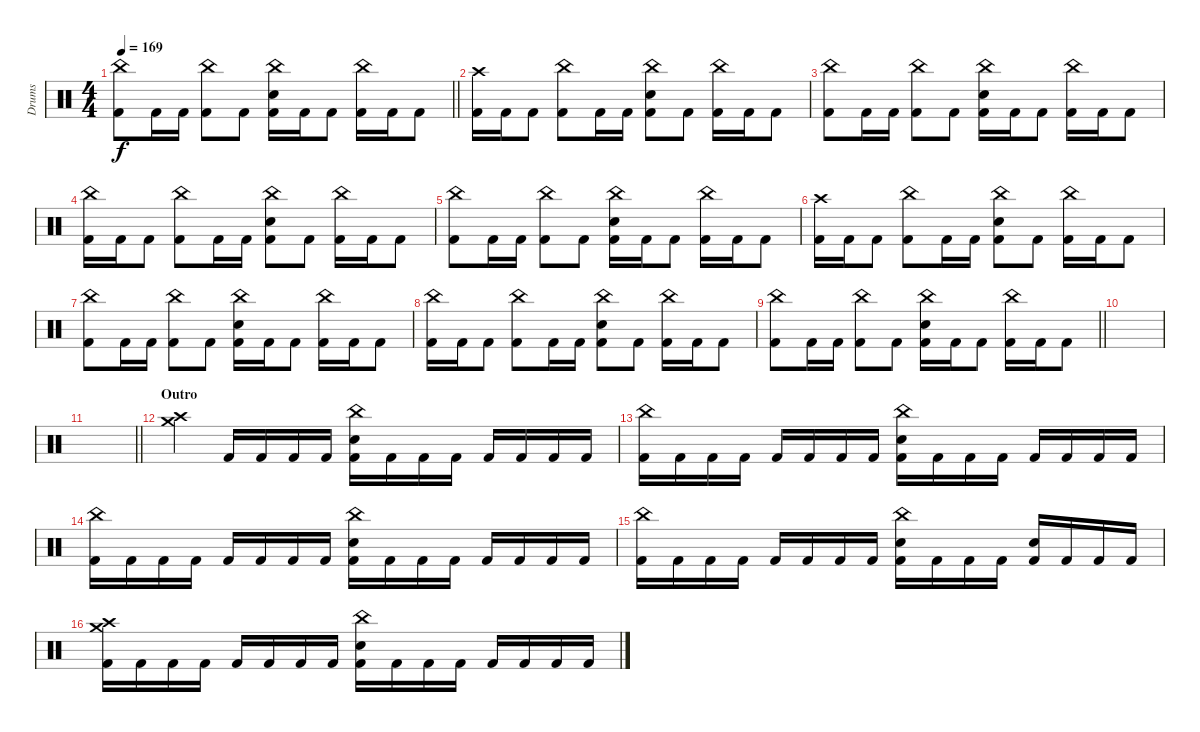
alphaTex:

\track ("Drums" "Drums") {instrument percussion}
\staff {score}
\articulation defaults
\ts (4 4)
\tempo 169
\clef neutral
\barLineRight lightlight
\ks c
("China (hit)" "Kick (hit) 2").8{dy f} "Kick (hit) 2".16 "Kick (hit) 2".16 ("China (hit)" "Kick (hit) 2").8 "Kick (hit) 2".8 ("China (hit)" "Snare (hit) 2" "Kick (hit) 2").16 "Kick (hit) 2".16 "Kick (hit) 2".8 ("China (hit)" "Kick (hit) 2").16 "Kick (hit) 2".16 "Kick (hit) 2".8 |
("Crash high (hit)" "Kick (hit) 2").16 "Kick (hit) 2".16 "Kick (hit) 2".8 ("China (hit)" "Kick (hit) 2").8 "Kick (hit) 2".16 "Kick (hit) 2".16 ("China (hit)" "Snare (hit) 2" "Kick (hit) 2").8 "Kick (hit) 2".8 ("China (hit)" "Kick (hit) 2").16 "Kick (hit) 2".16 "Kick (hit) 2".8 |
("China (hit)" "Kick (hit) 2").8 "Kick (hit) 2".16 "Kick (hit) 2".16 ("China (hit)" "Kick (hit) 2").8 "Kick (hit) 2".8 ("China (hit)" "Snare (hit) 2" "Kick (hit) 2").16 "Kick (hit) 2".16 "Kick (hit) 2".8 ("China (hit)" "Kick (hit) 2").16 "Kick (hit) 2".16 "Kick (hit) 2".8 |
("China (hit)" "Kick (hit) 2").16 "Kick (hit) 2".16 "Kick (hit) 2".8 ("China (hit)" "Kick (hit) 2").8 "Kick (hit) 2".16 "Kick (hit) 2".16 ("China (hit)" "Snare (hit) 2" "Kick (hit) 2").8 "Kick (hit) 2".8 ("China (hit)" "Kick (hit) 2").16 "Kick (hit) 2".16 "Kick (hit) 2".8 |
("China (hit)" "Kick (hit) 2").8 "Kick (hit) 2".16 "Kick (hit) 2".16 ("China (hit)" "Kick (hit) 2").8 "Kick (hit) 2".8 ("China (hit)" "Snare (hit) 2" "Kick (hit) 2").16 "Kick (hit) 2".16 "Kick (hit) 2".8 ("China (hit)" "Kick (hit) 2").16 "Kick (hit) 2".16 "Kick (hit) 2".8 |
("Crash high (hit)" "Kick (hit) 2").16 "Kick (hit) 2".16 "Kick (hit) 2".8 ("China (hit)" "Kick (hit) 2").8 "Kick (hit) 2".16 "Kick (hit) 2".16 ("China (hit)" "Snare (hit) 2" "Kick (hit) 2").8 "Kick (hit) 2".8 ("China (hit)" "Kick (hit) 2").16 "Kick (hit) 2".16 "Kick (hit) 2".8 |
("China (hit)" "Kick (hit) 2").8 "Kick (hit) 2".16 "Kick (hit) 2".16 ("China (hit)" "Kick (hit) 2").8 "Kick (hit) 2".8 ("China (hit)" "Snare (hit) 2" "Kick (hit) 2").16 "Kick (hit) 2".16 "Kick (hit) 2".8 ("China (hit)" "Kick (hit) 2").16 "Kick (hit) 2".16 "Kick (hit) 2".8 |
("China (hit)" "Kick (hit) 2").16 "Kick (hit) 2".16 "Kick (hit) 2".8 ("China (hit)" "Kick (hit) 2").8 "Kick (hit) 2".16 "Kick (hit) 2".16 ("China (hit)" "Snare (hit) 2" "Kick (hit) 2").8 "Kick (hit) 2".8 ("China (hit)" "Kick (hit) 2").16 "Kick (hit) 2".16 "Kick (hit) 2".8 |
\barLineRight lightlight
("China (hit)" "Kick (hit) 2").8 "Kick (hit) 2".16 "Kick (hit) 2".16 ("China (hit)" "Kick (hit) 2").8 "Kick (hit) 2".8 ("China (hit)" "Snare (hit) 2" "Kick (hit) 2").16 "Kick (hit) 2".16 "Kick (hit) 2".8 ("China (hit)" "Kick (hit) 2").16 "Kick (hit) 2".16 "Kick (hit) 2".8 |
|
\barLineRight lightlight
|
\section ("" "Outro")
("Crash high (hit)" "Crash medium (hit)").4 "Kick (hit) 2".16 "Kick (hit) 2".16 "Kick (hit) 2".16 "Kick (hit) 2".16 ("China (hit)" "Snare (hit) 2" "Kick (hit) 2").16 "Kick (hit) 2".16 "Kick (hit) 2".16 "Kick (hit) 2".16 "Kick (hit) 2".16 "Kick (hit) 2".16 "Kick (hit) 2".16 "Kick (hit) 2".16 |
("China (hit)" "Kick (hit) 2").16 "Kick (hit) 2".16 "Kick (hit) 2".16 "Kick (hit) 2".16 "Kick (hit) 2".16 "Kick (hit) 2".16 "Kick (hit) 2".16 "Kick (hit) 2".16 ("China (hit)" "Snare (hit) 2" "Kick (hit) 2").16 "Kick (hit) 2".16 "Kick (hit) 2".16 "Kick (hit) 2".16 "Kick (hit) 2".16 "Kick (hit) 2".16 "Kick (hit) 2".16 "Kick (hit) 2".16 |
("China (hit)" "Kick (hit) 2").16 "Kick (hit) 2".16 "Kick (hit) 2".16 "Kick (hit) 2".16 "Kick (hit) 2".16 "Kick (hit) 2".16 "Kick (hit) 2".16 "Kick (hit) 2".16 ("China (hit)" "Snare (hit) 2" "Kick (hit) 2").16 "Kick (hit) 2".16 "Kick (hit) 2".16 "Kick (hit) 2".16 "Kick (hit) 2".16 "Kick (hit) 2".16 "Kick (hit) 2".16 "Kick (hit) 2".16 |
("China (hit)" "Kick (hit) 2").16 "Kick (hit) 2".16 "Kick (hit) 2".16 "Kick (hit) 2".16 "Kick (hit) 2".16 "Kick (hit) 2".16 "Kick (hit) 2".16 "Kick (hit) 2".16 ("China (hit)" "Snare (hit) 2" "Kick (hit) 2").16 "Kick (hit) 2".16 "Kick (hit) 2".16 "Kick (hit) 2".16 ("Snare (hit) 2" "Kick (hit) 2").16 "Kick (hit) 2".16 "Kick (hit) 2".16 "Kick (hit) 2".16 |
("Crash medium (hit)" "Crash high (hit)" "Kick (hit) 2").16 "Kick (hit) 2".16 "Kick (hit) 2".16 "Kick (hit) 2".16 "Kick (hit) 2".16 "Kick (hit) 2".16 "Kick (hit) 2".16 "Kick (hit) 2".16 ("China (hit)" "Snare (hit) 2" "Kick (hit) 2").16 "Kick (hit) 2".16 "Kick (hit) 2".16 "Kick (hit) 2".16 "Kick (hit) 2".16 "Kick (hit) 2".16 "Kick (hit) 2".16 "Kick (hit) 2".16
